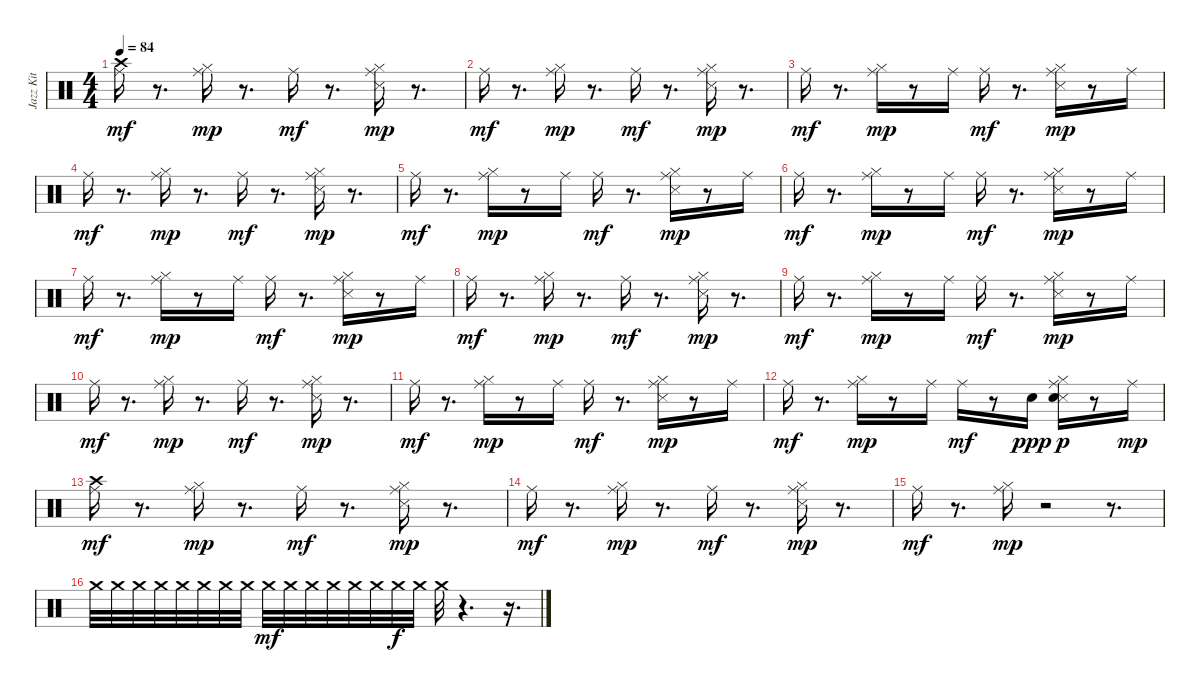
\track ("Jazz Kit" "Jazz Kit") {instrument percussion}
\staff {score}
\articulation defaults
\ts (4 4)
\tempo 84
\clef neutral
\ks c
("Crash high (hit)" "Ride (middle)").16{dy mf} r.8{d} ("Ride (middle)" "Hi-Hat (closed)").16{dy mp} r.8{d} "Ride (middle)".16{dy mf} r.8{d} ("Ride (middle)" "Snare (side stick) 3" "Hi-Hat (closed)").16{dy mp} r.8{d} |
"Ride (middle)".16{dy mf} r.8{d} ("Ride (middle)" "Hi-Hat (closed)").16{dy mp} r.8{d} "Ride (middle)".16{dy mf} r.8{d} ("Ride (middle)" "Snare (side stick) 3" "Hi-Hat (closed)").16{dy mp} r.8{d} |
"Ride (middle)".16{dy mf} r.8{d} ("Ride (middle)" "Hi-Hat (closed)").16{dy mp} r.8 "Ride (middle)".16 "Ride (middle)".16{dy mf} r.8{d} ("Ride (middle)" "Snare (side stick) 3" "Hi-Hat (closed)").16{dy mp} r.8 "Ride (middle)".16 |
"Ride (middle)".16{dy mf} r.8{d} ("Ride (middle)" "Hi-Hat (closed)").16{dy mp} r.8{d} "Ride (middle)".16{dy mf} r.8{d} ("Ride (middle)" "Snare (side stick) 3" "Hi-Hat (closed)").16{dy mp} r.8{d} |
"Ride (middle)".16{dy mf} r.8{d} ("Ride (middle)" "Hi-Hat (closed)").16{dy mp} r.8 "Ride (middle)".16 "Ride (middle)".16{dy mf} r.8{d} ("Ride (middle)" "Snare (side stick) 3" "Hi-Hat (closed)").16{dy mp} r.8 "Ride (middle)".16 |
"Ride (middle)".16{dy mf} r.8{d} ("Ride (middle)" "Hi-Hat (closed)").16{dy mp} r.8 "Ride (middle)".16 "Ride (middle)".16{dy mf} r.8{d} ("Ride (middle)" "Snare (side stick) 3" "Hi-Hat (closed)").16{dy mp} r.8 "Ride (middle)".16 |
"Ride (middle)".16{dy mf} r.8{d} ("Ride (middle)" "Hi-Hat (closed)").16{dy mp} r.8 "Ride (middle)".16 "Ride (middle)".16{dy mf} r.8{d} ("Ride (middle)" "Snare (side stick) 3" "Hi-Hat (closed)").16{dy mp} r.8 "Ride (middle)".16 |
"Ride (middle)".16{dy mf} r.8{d} ("Ride (middle)" "Hi-Hat (closed)").16{dy mp} r.8{d} "Ride (middle)".16{dy mf} r.8{d} ("Ride (middle)" "Snare (side stick) 3" "Hi-Hat (closed)").16{dy mp} r.8{d} |
"Ride (middle)".16{dy mf} r.8{d} ("Ride (middle)" "Hi-Hat (closed)").16{dy mp} r.8 "Ride (middle)".16 "Ride (middle)".16{dy mf} r.8{d} ("Ride (middle)" "Snare (side stick) 3" "Hi-Hat (closed)").16{dy mp} r.8 "Ride (middle)".16 |
"Ride (middle)".16{dy mf} r.8{d} ("Ride (middle)" "Hi-Hat (closed)").16{dy mp} r.8{d} "Ride (middle)".16{dy mf} r.8{d} ("Ride (middle)" "Snare (side stick) 3" "Hi-Hat (closed)").16{dy mp} r.8{d} |
"Ride (middle)".16{dy mf} r.8{d} ("Ride (middle)" "Hi-Hat (closed)").16{dy mp} r.8 "Ride (middle)".16 "Ride (middle)".16{dy mf} r.8{d} ("Ride (middle)" "Snare (side stick) 3" "Hi-Hat (closed)").16{dy mp} r.8 "Ride (middle)".16 |
"Ride (middle)".16{dy mf} r.8{d} ("Ride (middle)" "Hi-Hat (closed)").16{dy mp} r.8 "Ride (middle)".16 "Ride (middle)".16{dy mf} r.8 "Snare (hit) 2".16{dy ppp} ("Ride (middle)" "Snare (side stick) 3" "Hi-Hat (closed)" "Snare (hit) 2").16{dy p} r.8 "Ride (middle)".16{dy mp} |
("Crash high (hit)" "Ride (middle)").16{dy mf} r.8{d} ("Ride (middle)" "Hi-Hat (closed)").16{dy mp} r.8{d} "Ride (middle)".16{dy mf} r.8{d} ("Ride (middle)" "Snare (side stick) 3" "Hi-Hat (closed)").16{dy mp} r.8{d} |
"Ride (middle)".16{dy mf} r.8{d} ("Ride (middle)" "Hi-Hat (closed)").16{dy mp} r.8{d} "Ride (middle)".16{dy mf} r.8{d} ("Ride (middle)" "Snare (side stick) 3" "Hi-Hat (closed)").16{dy mp} r.8{d} |
"Ride (middle)".16{dy mf} r.8{d} ("Ride (middle)" "Hi-Hat (closed)").16{dy mp} r.2 r.8{d} |
"Crash medium (hit)".32 "Crash medium (hit)".32 "Crash medium (hit)".32 "Crash medium (hit)".32 "Crash medium (hit)".32 "Crash medium (hit)".32 "Crash medium (hit)".32 "Crash medium (hit)".32 "Crash medium (hit)".32{dy mf} "Crash medium (hit)".32 "Crash medium (hit)".32 "Crash medium (hit)".32 "Crash medium (hit)".32 "Crash medium (hit)".32 "Crash medium (hit)".32{dy f} "Crash medium (hit)".32 "Crash medium (hit)".32 r.4{d} r.16{d}
